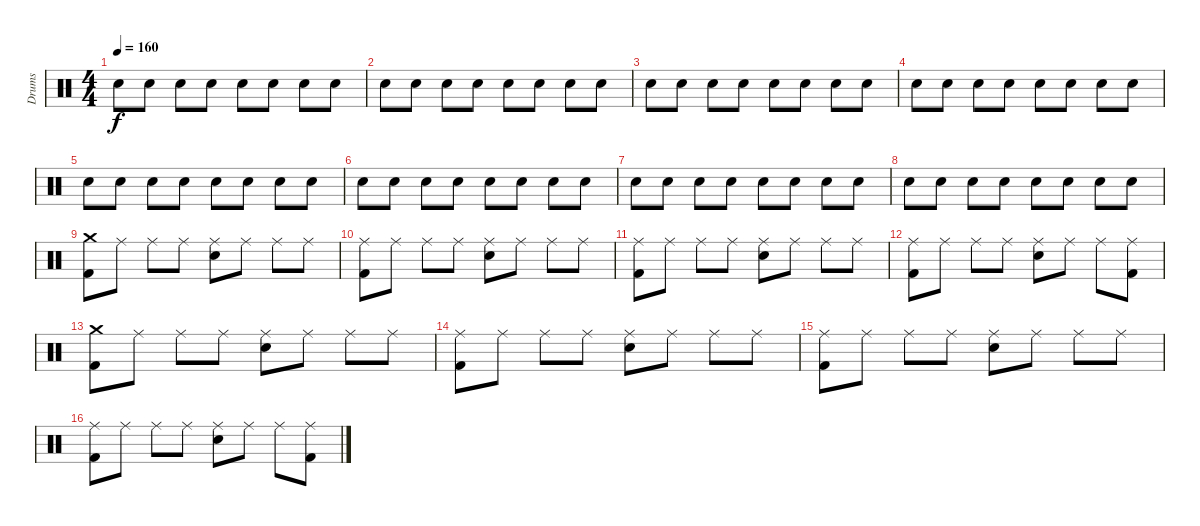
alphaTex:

\track ("Drums" "Drums") {instrument percussion}
\staff {score}
\articulation defaults
\ts (4 4)
\tempo 160
\clef neutral
\ks c "Electric Snare (hit)".8{dy f} "Electric Snare (hit)".8 "Electric Snare (hit)".8 "Electric Snare (hit)".8 "Electric Snare (hit)".8 "Electric Snare (hit)".8 "Electric Snare (hit)".8 "Electric Snare (hit)".8
|
"Electric Snare (hit)".8 "Electric Snare (hit)".8 "Electric Snare (hit)".8 "Electric Snare (hit)".8 "Electric Snare (hit)".8 "Electric Snare (hit)".8 "Electric Snare (hit)".8 "Electric Snare (hit)".8 |
"Electric Snare (hit)".8 "Electric Snare (hit)".8 "Electric Snare (hit)".8 "Electric Snare (hit)".8 "Electric Snare (hit)".8 "Electric Snare (hit)".8 "Electric Snare (hit)".8 "Electric Snare (hit)".8 |
"Electric Snare (hit)".8 "Electric Snare (hit)".8 "Electric Snare (hit)".8 "Electric Snare (hit)".8 "Electric Snare (hit)".8 "Electric Snare (hit)".8 "Electric Snare (hit)".8 "Electric Snare (hit)".8 |
"Electric Snare (hit)".8 "Electric Snare (hit)".8 "Electric Snare (hit)".8 "Electric Snare (hit)".8 "Electric Snare (hit)".8 "Electric Snare (hit)".8 "Electric Snare (hit)".8 "Electric Snare (hit)".8 |
"Electric Snare (hit)".8 "Electric Snare (hit)".8 "Electric Snare (hit)".8 "Electric Snare (hit)".8 "Electric Snare (hit)".8 "Electric Snare (hit)".8 "Electric Snare (hit)".8 "Electric Snare (hit)".8 |
"Electric Snare (hit)".8 "Electric Snare (hit)".8 "Electric Snare (hit)".8 "Electric Snare (hit)".8 "Electric Snare (hit)".8 "Electric Snare (hit)".8 "Electric Snare (hit)".8 "Electric Snare (hit)".8 |
"Electric Snare (hit)".8 "Electric Snare (hit)".8 "Electric Snare (hit)".8 "Electric Snare (hit)".8 "Electric Snare (hit)".8 "Electric Snare (hit)".8 "Electric Snare (hit)".8 "Electric Snare (hit)".8 |
("Kick (hit) 2" "Crash medium (hit)").8 "Ride (middle)".8 "Ride (middle)".8 "Ride (middle)".8 ("Electric Snare (hit)" "Ride (middle)").8 "Ride (middle)".8 "Ride (middle)".8 "Ride (middle)".8 |
("Kick (hit) 2" "Ride (middle)").8 "Ride (middle)".8 "Ride (middle)".8 "Ride (middle)".8 ("Electric Snare (hit)" "Ride (middle)").8 "Ride (middle)".8 "Ride (middle)".8 "Ride (middle)".8 |
("Kick (hit) 2" "Ride (middle)").8 "Ride (middle)".8 "Ride (middle)".8 "Ride (middle)".8 ("Electric Snare (hit)" "Ride (middle)").8 "Ride (middle)".8 "Ride (middle)".8 "Ride (middle)".8 |
("Kick (hit) 2" "Ride (middle)").8 "Ride (middle)".8 "Ride (middle)".8 "Ride (middle)".8 ("Electric Snare (hit)" "Ride (middle)").8 "Ride (middle)".8 "Ride (middle)".8 ("Kick (hit) 2" "Ride (middle)").8 |
("Kick (hit) 2" "Crash medium (hit)").8 "Ride (middle)".8 "Ride (middle)".8 "Ride (middle)".8 ("Electric Snare (hit)" "Ride (middle)").8 "Ride (middle)".8 "Ride (middle)".8 "Ride (middle)".8 |
("Kick (hit) 2" "Ride (middle)").8 "Ride (middle)".8 "Ride (middle)".8 "Ride (middle)".8 ("Electric Snare (hit)" "Ride (middle)").8 "Ride (middle)".8 "Ride (middle)".8 "Ride (middle)".8 |
("Kick (hit) 2" "Ride (middle)").8 "Ride (middle)".8 "Ride (middle)".8 "Ride (middle)".8 ("Electric Snare (hit)" "Ride (middle)").8 "Ride (middle)".8 "Ride (middle)".8 "Ride (middle)".8 |
("Kick (hit) 2" "Ride (middle)").8 "Ride (middle)".8 "Ride (middle)".8 "Ride (middle)".8 ("Electric Snare (hit)" "Ride (middle)").8 "Ride (middle)".8 "Ride (middle)".8 ("Kick (hit) 2" "Ride (middle)").8
